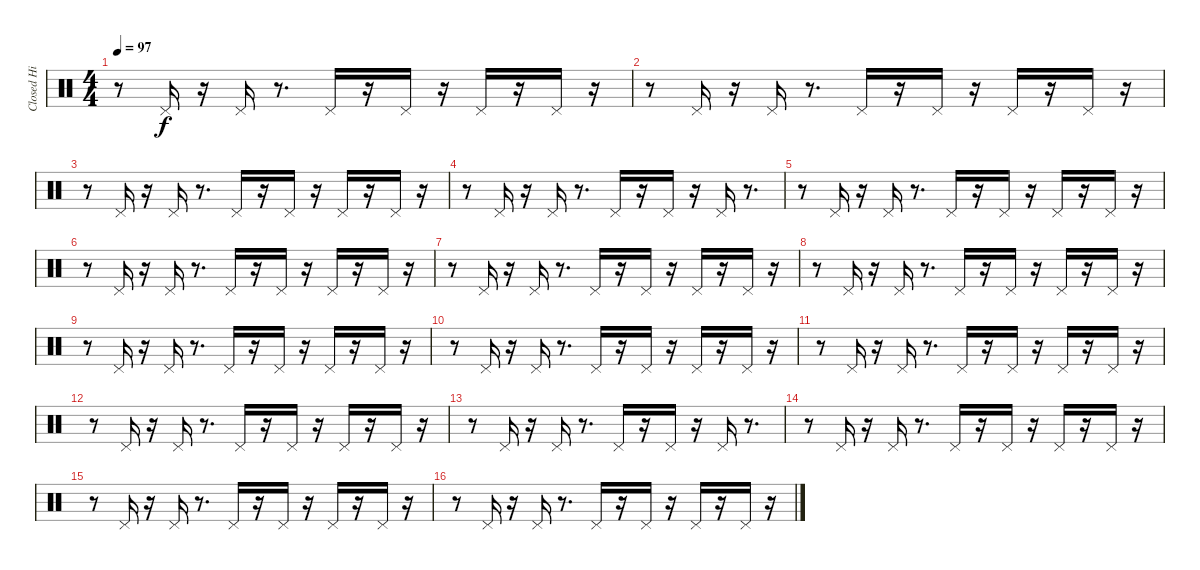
\track ("Closed Hi Hat" "Closed Hi ") {instrument percussion}
\staff {score}
\articulation defaults
\ts (4 4)
\tempo 97
\clef neutral
\ks c
r.8{dy f} "Pedal Hi-Hat (hit)".16 r.16 "Pedal Hi-Hat (hit)".16 r.8{d} "Pedal Hi-Hat (hit)".16 r.16 "Pedal Hi-Hat (hit)".16 r.16 "Pedal Hi-Hat (hit)".16 r.16 "Pedal Hi-Hat (hit)".16 r.16 |
r.8 "Pedal Hi-Hat (hit)".16 r.16 "Pedal Hi-Hat (hit)".16 r.8{d} "Pedal Hi-Hat (hit)".16 r.16 "Pedal Hi-Hat (hit)".16 r.16 "Pedal Hi-Hat (hit)".16 r.16 "Pedal Hi-Hat (hit)".16 r.16 |
r.8 "Pedal Hi-Hat (hit)".16 r.16 "Pedal Hi-Hat (hit)".16 r.8{d} "Pedal Hi-Hat (hit)".16 r.16 "Pedal Hi-Hat (hit)".16 r.16 "Pedal Hi-Hat (hit)".16 r.16 "Pedal Hi-Hat (hit)".16 r.16 |
r.8 "Pedal Hi-Hat (hit)".16 r.16 "Pedal Hi-Hat (hit)".16 r.8{d} "Pedal Hi-Hat (hit)".16 r.16 "Pedal Hi-Hat (hit)".16 r.16 "Pedal Hi-Hat (hit)".16 r.8{d} |
r.8 "Pedal Hi-Hat (hit)".16 r.16 "Pedal Hi-Hat (hit)".16 r.8{d} "Pedal Hi-Hat (hit)".16 r.16 "Pedal Hi-Hat (hit)".16 r.16 "Pedal Hi-Hat (hit)".16 r.16 "Pedal Hi-Hat (hit)".16 r.16 |
r.8 "Pedal Hi-Hat (hit)".16 r.16 "Pedal Hi-Hat (hit)".16 r.8{d} "Pedal Hi-Hat (hit)".16 r.16 "Pedal Hi-Hat (hit)".16 r.16 "Pedal Hi-Hat (hit)".16 r.16 "Pedal Hi-Hat (hit)".16 r.16 |
r.8 "Pedal Hi-Hat (hit)".16 r.16 "Pedal Hi-Hat (hit)".16 r.8{d} "Pedal Hi-Hat (hit)".16 r.16 "Pedal Hi-Hat (hit)".16 r.16 "Pedal Hi-Hat (hit)".16 r.16 "Pedal Hi-Hat (hit)".16 r.16 |
r.8 "Pedal Hi-Hat (hit)".16 r.16 "Pedal Hi-Hat (hit)".16 r.8{d} "Pedal Hi-Hat (hit)".16 r.16 "Pedal Hi-Hat (hit)".16 r.16 "Pedal Hi-Hat (hit)".16 r.16 "Pedal Hi-Hat (hit)".16 r.16 |
r.8 "Pedal Hi-Hat (hit)".16 r.16 "Pedal Hi-Hat (hit)".16 r.8{d} "Pedal Hi-Hat (hit)".16 r.16 "Pedal Hi-Hat (hit)".16 r.16 "Pedal Hi-Hat (hit)".16 r.16 "Pedal Hi-Hat (hit)".16 r.16 |
r.8 "Pedal Hi-Hat (hit)".16 r.16 "Pedal Hi-Hat (hit)".16 r.8{d} "Pedal Hi-Hat (hit)".16 r.16 "Pedal Hi-Hat (hit)".16 r.16 "Pedal Hi-Hat (hit)".16 r.16 "Pedal Hi-Hat (hit)".16 r.16 |
r.8 "Pedal Hi-Hat (hit)".16 r.16 "Pedal Hi-Hat (hit)".16 r.8{d} "Pedal Hi-Hat (hit)".16 r.16 "Pedal Hi-Hat (hit)".16 r.16 "Pedal Hi-Hat (hit)".16 r.16 "Pedal Hi-Hat (hit)".16 r.16 |
r.8 "Pedal Hi-Hat (hit)".16 r.16 "Pedal Hi-Hat (hit)".16 r.8{d} "Pedal Hi-Hat (hit)".16 r.16 "Pedal Hi-Hat (hit)".16 r.16 "Pedal Hi-Hat (hit)".16 r.16 "Pedal Hi-Hat (hit)".16 r.16 |
r.8 "Pedal Hi-Hat (hit)".16 r.16 "Pedal Hi-Hat (hit)".16 r.8{d} "Pedal Hi-Hat (hit)".16 r.16 "Pedal Hi-Hat (hit)".16 r.16 "Pedal Hi-Hat (hit)".16 r.8{d} |
r.8 "Pedal Hi-Hat (hit)".16 r.16 "Pedal Hi-Hat (hit)".16 r.8{d} "Pedal Hi-Hat (hit)".16 r.16 "Pedal Hi-Hat (hit)".16 r.16 "Pedal Hi-Hat (hit)".16 r.16 "Pedal Hi-Hat (hit)".16 r.16 |
r.8 "Pedal Hi-Hat (hit)".16 r.16 "Pedal Hi-Hat (hit)".16 r.8{d} "Pedal Hi-Hat (hit)".16 r.16 "Pedal Hi-Hat (hit)".16 r.16 "Pedal Hi-Hat (hit)".16 r.16 "Pedal Hi-Hat (hit)".16 r.16 |
r.8 "Pedal Hi-Hat (hit)".16 r.16 "Pedal Hi-Hat (hit)".16 r.8{d} "Pedal Hi-Hat (hit)".16 r.16 "Pedal Hi-Hat (hit)".16 r.16 "Pedal Hi-Hat (hit)".16 r.16 "Pedal Hi-Hat (hit)".16 r.16
